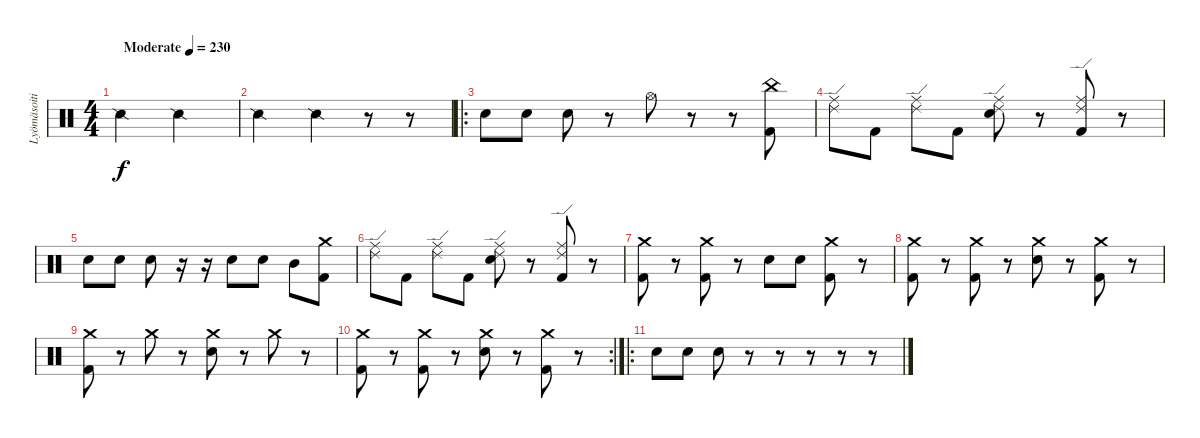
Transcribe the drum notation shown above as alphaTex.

\track ("Lyömäsoitin" "Lyömäsoiti") {instrument percussion}
\staff {score}
\articulation defaults
\ts (4 4)
\tempo (230 "Moderate")
\clef neutral
\ks c "Snare (side stick) 2".2{dy f} "Snare (side stick) 2".2
|
"Snare (side stick) 2".2 "Snare (side stick) 2".4 r.8 r.8 |
\ro "Electric Snare (hit)".8 "Electric Snare (hit)".8 "Electric Snare (hit)".8
r.8 "Hi-Hat (open)".8 r.8 r.8 ("China (hit)" "Kick (hit) 2").8 |
("Ride (middle)" "Ride (edge) 2").8 "Kick (hit) 2".8 ("Ride (middle)" "Ride (edge) 2").8 "Kick (hit) 2".8 ("Ride (middle)" "Ride (edge) 2" "Electric Snare (hit)").8 r.8 ("Ride (middle)" "Ride (edge) 2" "Kick (hit) 2").8 r.8 |
"Electric Snare (hit)".8 "Electric Snare (hit)".8 "Electric Snare (hit)".8 r.16 r.16 "Electric Snare (hit)".8 "Electric Snare (hit)".8 "Mid Tom (hit)".8 ("Crash medium (hit)" "Kick (hit) 2").8 |
("Ride (middle)" "Ride (edge) 2").8 "Kick (hit) 2".8 ("Ride (middle)" "Ride (edge) 2").8 "Kick (hit) 2".8 ("Ride (middle)" "Ride (edge) 2" "Electric Snare (hit)").8 r.8 ("Ride (middle)" "Ride (edge) 2" "Kick (hit) 2").8 r.8 |
("Crash medium (hit)" "Kick (hit) 2").8 r.8 ("Crash medium (hit)" "Kick (hit) 2").8 r.8 "Electric Snare (hit)".8 "Electric Snare (hit)".8 ("Crash medium (hit)" "Kick (hit) 2").8 r.8 |
("Crash medium (hit)" "Kick (hit) 2").8 r.8 ("Crash medium (hit)" "Kick (hit) 2").8 r.8 ("Crash medium (hit)" "Electric Snare (hit)").8 r.8 ("Crash medium (hit)" "Kick (hit) 2").8 r.8 |
("Crash medium (hit)" "Kick (hit) 2").8 r.8 "Crash medium (hit)".8 r.8 ("Crash medium (hit)" "Electric Snare (hit)").8 r.8 "Crash medium (hit)".8 r.8 |
\rc 2
("Crash medium (hit)" "Kick (hit) 2").8 r.8 ("Crash medium (hit)" "Kick (hit) 2").8 r.8 ("Crash medium (hit)" "Electric Snare (hit)").8 r.8 ("Crash medium (hit)" "Kick (hit) 2").8 r.8 |
\ro "Electric Snare (hit)".8 "Electric Snare (hit)".8 "Electric Snare (hit)".8
r.8 r.8 r.8 r.8 r.8
